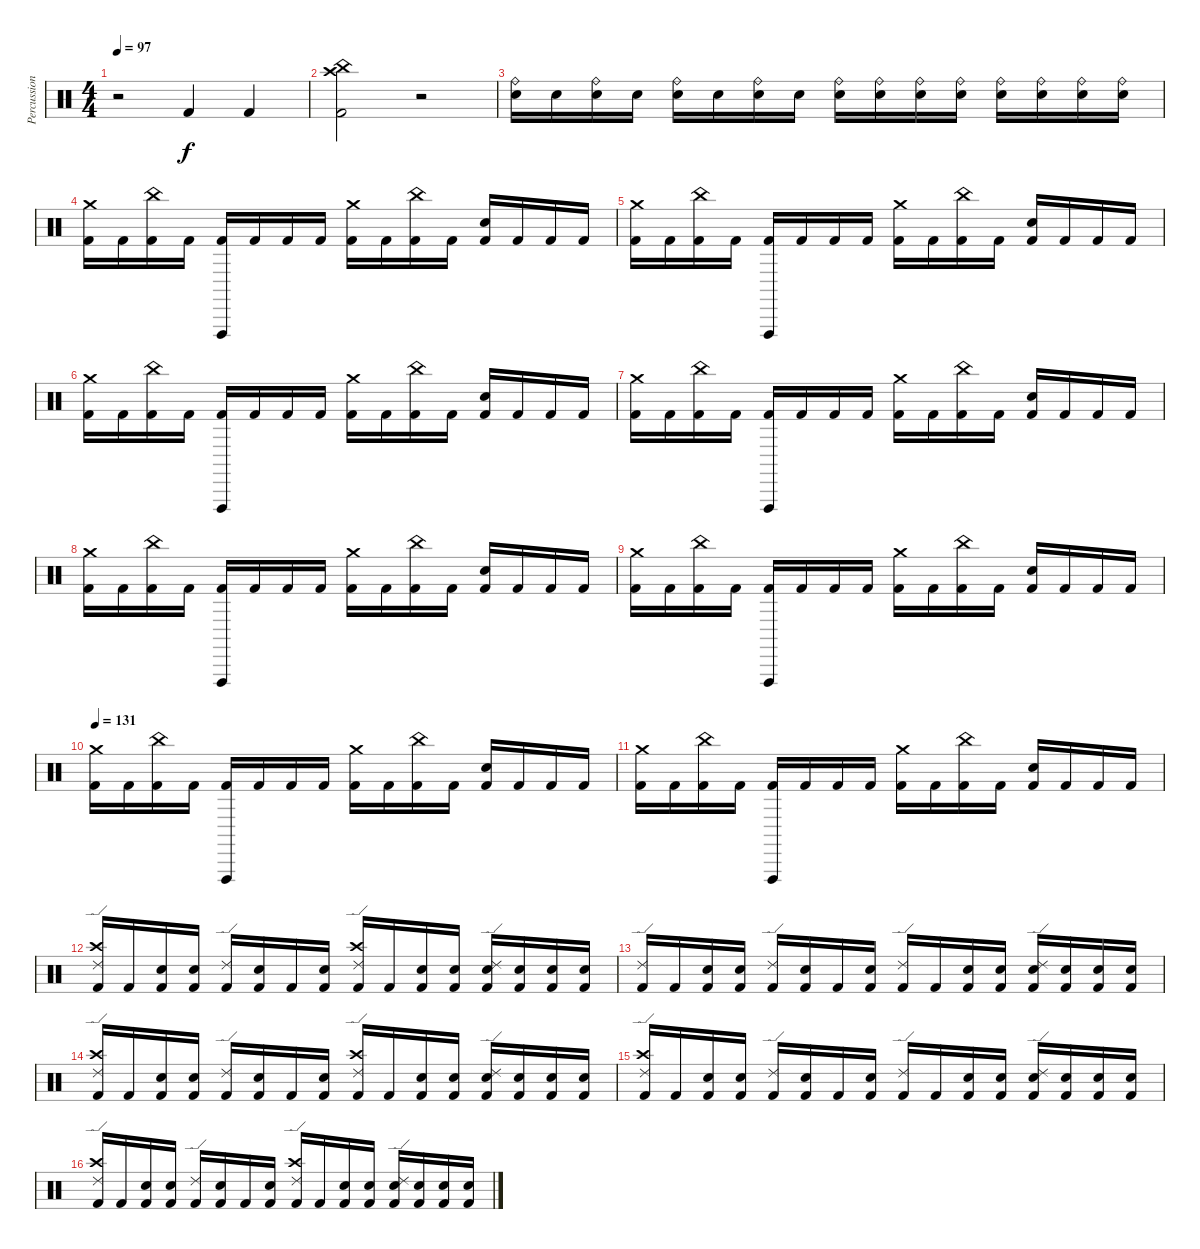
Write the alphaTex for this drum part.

\track ("Percussion" "Percussion") {instrument percussion}
\staff {score}
\articulation defaults
\ts (4 4)
\tempo 97
\clef neutral
\ks c
r.2{dy f} "Kick (hit) 2".4 "Kick (hit) 2".4 |
("Crash high (hit)" "China (hit)" "Kick (hit) 2").2 r.2{volume 4} |
("Ride (bell)" "Electric Snare (hit)").16{volume 7} "Electric Snare (hit)".16 ("Ride (bell)" "Electric Snare (hit)").16 "Electric Snare (hit)".16 ("Ride (bell)" "Electric Snare (hit)").16 "Electric Snare (hit)".16 ("Ride (bell)" "Electric Snare (hit)").16 "Electric Snare (hit)".16 ("Ride (bell)" "Electric Snare (hit)").16{volume 16} ("Ride (bell)" "Electric Snare (hit)").16 ("Ride (bell)" "Electric Snare (hit)").16 ("Ride (bell)" "Electric Snare (hit)").16 ("Ride (bell)" "Electric Snare (hit)").16 ("Ride (bell)" "Electric Snare (hit)").16 ("Ride (bell)" "Electric Snare (hit)").16 ("Ride (bell)" "Electric Snare (hit)").16 |
("Crash medium (hit)" "Kick (hit) 2").16 "Kick (hit) 2".16 ("China (hit)" "Kick (hit) 2").16 "Kick (hit) 2".16 ("Vibraslap (hit)" "Kick (hit) 2").16 "Kick (hit) 2".16 "Kick (hit) 2".16 "Kick (hit) 2".16 ("Crash medium (hit)" "Kick (hit) 2").16 "Kick (hit) 2".16 ("China (hit)" "Kick (hit) 2").16 "Kick (hit) 2".16 ("Electric Snare (hit)" "Kick (hit) 2").16 "Kick (hit) 2".16 "Kick (hit) 2".16 "Kick (hit) 2".16 |
("Crash medium (hit)" "Kick (hit) 2").16 "Kick (hit) 2".16 ("China (hit)" "Kick (hit) 2").16 "Kick (hit) 2".16 ("Vibraslap (hit)" "Kick (hit) 2").16 "Kick (hit) 2".16 "Kick (hit) 2".16 "Kick (hit) 2".16 ("Crash medium (hit)" "Kick (hit) 2").16 "Kick (hit) 2".16 ("China (hit)" "Kick (hit) 2").16 "Kick (hit) 2".16 ("Electric Snare (hit)" "Kick (hit) 2").16 "Kick (hit) 2".16 "Kick (hit) 2".16 "Kick (hit) 2".16 |
("Crash medium (hit)" "Kick (hit) 2").16 "Kick (hit) 2".16 ("China (hit)" "Kick (hit) 2").16 "Kick (hit) 2".16 ("Vibraslap (hit)" "Kick (hit) 2").16 "Kick (hit) 2".16 "Kick (hit) 2".16 "Kick (hit) 2".16 ("Crash medium (hit)" "Kick (hit) 2").16 "Kick (hit) 2".16 ("China (hit)" "Kick (hit) 2").16 "Kick (hit) 2".16 ("Electric Snare (hit)" "Kick (hit) 2").16 "Kick (hit) 2".16 "Kick (hit) 2".16 "Kick (hit) 2".16 |
("Crash medium (hit)" "Kick (hit) 2").16 "Kick (hit) 2".16 ("China (hit)" "Kick (hit) 2").16 "Kick (hit) 2".16 ("Vibraslap (hit)" "Kick (hit) 2").16 "Kick (hit) 2".16 "Kick (hit) 2".16 "Kick (hit) 2".16 ("Crash medium (hit)" "Kick (hit) 2").16 "Kick (hit) 2".16 ("China (hit)" "Kick (hit) 2").16 "Kick (hit) 2".16 ("Electric Snare (hit)" "Kick (hit) 2").16 "Kick (hit) 2".16 "Kick (hit) 2".16 "Kick (hit) 2".16 |
("Crash medium (hit)" "Kick (hit) 2").16 "Kick (hit) 2".16 ("China (hit)" "Kick (hit) 2").16 "Kick (hit) 2".16 ("Vibraslap (hit)" "Kick (hit) 2").16 "Kick (hit) 2".16 "Kick (hit) 2".16 "Kick (hit) 2".16 ("Crash medium (hit)" "Kick (hit) 2").16 "Kick (hit) 2".16 ("China (hit)" "Kick (hit) 2").16 "Kick (hit) 2".16 ("Electric Snare (hit)" "Kick (hit) 2").16 "Kick (hit) 2".16 "Kick (hit) 2".16 "Kick (hit) 2".16 |
("Crash medium (hit)" "Kick (hit) 2").16 "Kick (hit) 2".16 ("China (hit)" "Kick (hit) 2").16 "Kick (hit) 2".16 ("Vibraslap (hit)" "Kick (hit) 2").16 "Kick (hit) 2".16 "Kick (hit) 2".16 "Kick (hit) 2".16 ("Crash medium (hit)" "Kick (hit) 2").16 "Kick (hit) 2".16 ("China (hit)" "Kick (hit) 2").16 "Kick (hit) 2".16 ("Electric Snare (hit)" "Kick (hit) 2").16 "Kick (hit) 2".16 "Kick (hit) 2".16 "Kick (hit) 2".16 |
\tempo 131
("Crash medium (hit)" "Kick (hit) 2").16 "Kick (hit) 2".16 ("China (hit)" "Kick (hit) 2").16 "Kick (hit) 2".16 ("Vibraslap (hit)" "Kick (hit) 2").16 "Kick (hit) 2".16 "Kick (hit) 2".16 "Kick (hit) 2".16 ("Crash medium (hit)" "Kick (hit) 2").16 "Kick (hit) 2".16 ("China (hit)" "Kick (hit) 2").16 "Kick (hit) 2".16 ("Electric Snare (hit)" "Kick (hit) 2").16 "Kick (hit) 2".16 "Kick (hit) 2".16 "Kick (hit) 2".16 |
("Crash medium (hit)" "Kick (hit) 2").16 "Kick (hit) 2".16 ("China (hit)" "Kick (hit) 2").16 "Kick (hit) 2".16 ("Vibraslap (hit)" "Kick (hit) 2").16 "Kick (hit) 2".16 "Kick (hit) 2".16 "Kick (hit) 2".16 ("Crash medium (hit)" "Kick (hit) 2").16 "Kick (hit) 2".16 ("China (hit)" "Kick (hit) 2").16 "Kick (hit) 2".16 ("Electric Snare (hit)" "Kick (hit) 2").16 "Kick (hit) 2".16 "Kick (hit) 2".16 "Kick (hit) 2".16 |
("Crash high (hit)" "Ride (edge) 2" "Kick (hit) 2").16 "Kick (hit) 2".16 ("Electric Snare (hit)" "Kick (hit) 2").16 ("Electric Snare (hit)" "Kick (hit) 2").16 ("Ride (edge) 2" "Kick (hit) 2").16 ("Electric Snare (hit)" "Kick (hit) 2").16 "Kick (hit) 2".16 ("Electric Snare (hit)" "Kick (hit) 2").16 ("Crash high (hit)" "Ride (edge) 2" "Kick (hit) 2").16 "Kick (hit) 2".16 ("Electric Snare (hit)" "Kick (hit) 2").16 ("Electric Snare (hit)" "Kick (hit) 2").16 ("Ride (edge) 2" "Electric Snare (hit)" "Kick (hit) 2").16 ("Electric Snare (hit)" "Kick (hit) 2").16 ("Electric Snare (hit)" "Kick (hit) 2").16 ("Electric Snare (hit)" "Kick (hit) 2").16 |
("Ride (edge) 2" "Kick (hit) 2").16 "Kick (hit) 2".16 ("Electric Snare (hit)" "Kick (hit) 2").16 ("Electric Snare (hit)" "Kick (hit) 2").16 ("Ride (edge) 2" "Kick (hit) 2").16 ("Electric Snare (hit)" "Kick (hit) 2").16 "Kick (hit) 2".16 ("Electric Snare (hit)" "Kick (hit) 2").16 ("Ride (edge) 2" "Kick (hit) 2").16 "Kick (hit) 2".16 ("Electric Snare (hit)" "Kick (hit) 2").16 ("Electric Snare (hit)" "Kick (hit) 2").16 ("Ride (edge) 2" "Electric Snare (hit)" "Kick (hit) 2").16 ("Electric Snare (hit)" "Kick (hit) 2").16 ("Electric Snare (hit)" "Kick (hit) 2").16 ("Electric Snare (hit)" "Kick (hit) 2").16 |
("Crash high (hit)" "Ride (edge) 2" "Kick (hit) 2").16 "Kick (hit) 2".16 ("Electric Snare (hit)" "Kick (hit) 2").16 ("Electric Snare (hit)" "Kick (hit) 2").16 ("Ride (edge) 2" "Kick (hit) 2").16 ("Electric Snare (hit)" "Kick (hit) 2").16 "Kick (hit) 2".16 ("Electric Snare (hit)" "Kick (hit) 2").16 ("Crash high (hit)" "Ride (edge) 2" "Kick (hit) 2").16 "Kick (hit) 2".16 ("Electric Snare (hit)" "Kick (hit) 2").16 ("Electric Snare (hit)" "Kick (hit) 2").16 ("Ride (edge) 2" "Electric Snare (hit)" "Kick (hit) 2").16 ("Electric Snare (hit)" "Kick (hit) 2").16 ("Electric Snare (hit)" "Kick (hit) 2").16 ("Electric Snare (hit)" "Kick (hit) 2").16 |
("Crash high (hit)" "Ride (edge) 2" "Kick (hit) 2").16 "Kick (hit) 2".16 ("Electric Snare (hit)" "Kick (hit) 2").16 ("Electric Snare (hit)" "Kick (hit) 2").16 ("Ride (edge) 2" "Kick (hit) 2").16 ("Electric Snare (hit)" "Kick (hit) 2").16 "Kick (hit) 2".16 ("Electric Snare (hit)" "Kick (hit) 2").16 ("Ride (edge) 2" "Kick (hit) 2").16 "Kick (hit) 2".16 ("Electric Snare (hit)" "Kick (hit) 2").16 ("Electric Snare (hit)" "Kick (hit) 2").16 ("Ride (edge) 2" "Electric Snare (hit)" "Kick (hit) 2").16 ("Electric Snare (hit)" "Kick (hit) 2").16 ("Electric Snare (hit)" "Kick (hit) 2").16 ("Electric Snare (hit)" "Kick (hit) 2").16 |
("Crash high (hit)" "Ride (edge) 2" "Kick (hit) 2").16 "Kick (hit) 2".16 ("Electric Snare (hit)" "Kick (hit) 2").16 ("Electric Snare (hit)" "Kick (hit) 2").16 ("Ride (edge) 2" "Kick (hit) 2").16 ("Electric Snare (hit)" "Kick (hit) 2").16 "Kick (hit) 2".16 ("Electric Snare (hit)" "Kick (hit) 2").16 ("Crash high (hit)" "Ride (edge) 2" "Kick (hit) 2").16 "Kick (hit) 2".16 ("Electric Snare (hit)" "Kick (hit) 2").16 ("Electric Snare (hit)" "Kick (hit) 2").16 ("Ride (edge) 2" "Electric Snare (hit)" "Kick (hit) 2").16 ("Electric Snare (hit)" "Kick (hit) 2").16 ("Electric Snare (hit)" "Kick (hit) 2").16 ("Electric Snare (hit)" "Kick (hit) 2").16
